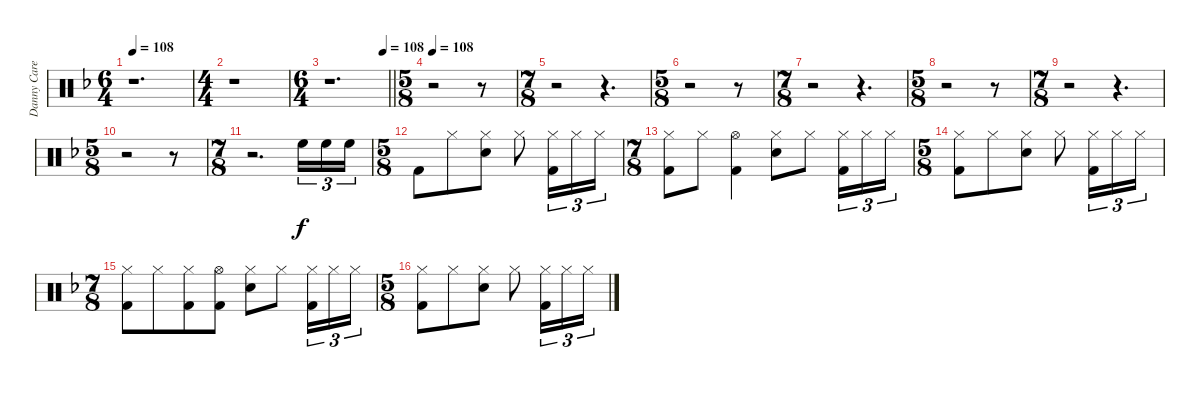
\track ("Danny Carey" "Danny Care") {instrument percussion}
\staff {score}
\articulation defaults
\ts (6 4)
\tempo 108
\tempo 67
\tempo 108
\clef neutral
\ks dminor
r.1{d dy f} |
\ts (4 4)
r.1 |
\ts (6 4)
\tempo (108 0.9166666666666666)
\barLineRight lightlight
r.1{d} |
\ts (5 8)
\tempo 108
r.2 r.8 |
\ts (7 8)
r.2 r.4{d} |
\ts (5 8)
r.2 r.8 |
\ts (7 8)
r.2 r.4{d} |
\ts (5 8)
r.2 r.8 |
\ts (7 8)
r.2 r.4{d} |
\ts (5 8)
r.2 r.8 |
\ts (7 8)
r.2{d} "High Floor Tom (hit)".16{tu (3 2)} "High Floor Tom (hit)".16{tu (3 2)} "High Floor Tom (hit)".16{tu (3 2)} |
\ts (5 8)
"Kick (hit) 2".8 "Hi-Hat (closed)".8 ("Hi-Hat (closed)" "Electric Snare (hit)").8 "Hi-Hat (closed)".8 ("Hi-Hat (closed)" "Kick (hit) 2").16{tu (3 2)} "Hi-Hat (closed)".16{tu (3 2)} "Hi-Hat (closed)".16{tu (3 2)} |
\ts (7 8)
("Hi-Hat (closed)" "Kick (hit) 2").8 "Hi-Hat (closed)".8 ("Hi-Hat (open)" "Kick (hit) 2").4 ("Hi-Hat (closed)" "Electric Snare (hit)").8 "Hi-Hat (closed)".8 ("Hi-Hat (closed)" "Kick (hit) 2").16{tu (3 2)} "Hi-Hat (closed)".16{tu (3 2)} "Hi-Hat (closed)".16{tu (3 2)} |
\ts (5 8)
("Hi-Hat (closed)" "Kick (hit) 2").8 "Hi-Hat (closed)".8 ("Hi-Hat (closed)" "Electric Snare (hit)").8 "Hi-Hat (closed)".8 ("Hi-Hat (closed)" "Kick (hit) 2").16{tu (3 2)} "Hi-Hat (closed)".16{tu (3 2)} "Hi-Hat (closed)".16{tu (3 2)} |
\ts (7 8)
("Hi-Hat (closed)" "Kick (hit) 2").8 "Hi-Hat (closed)".8 ("Hi-Hat (closed)" "Kick (hit) 2").8 ("Hi-Hat (open)" "Kick (hit) 2").8 ("Hi-Hat (closed)" "Electric Snare (hit)").8 "Hi-Hat (closed)".8 ("Hi-Hat (closed)" "Kick (hit) 2").16{tu (3 2)} "Hi-Hat (closed)".16{tu (3 2)} "Hi-Hat (closed)".16{tu (3 2)} |
\ts (5 8)
("Hi-Hat (closed)" "Kick (hit) 2").8 "Hi-Hat (closed)".8 ("Hi-Hat (closed)" "Electric Snare (hit)").8 "Hi-Hat (closed)".8 ("Hi-Hat (closed)" "Kick (hit) 2").16{tu (3 2)} "Hi-Hat (closed)".16{tu (3 2)} "Hi-Hat (closed)".16{tu (3 2)}
